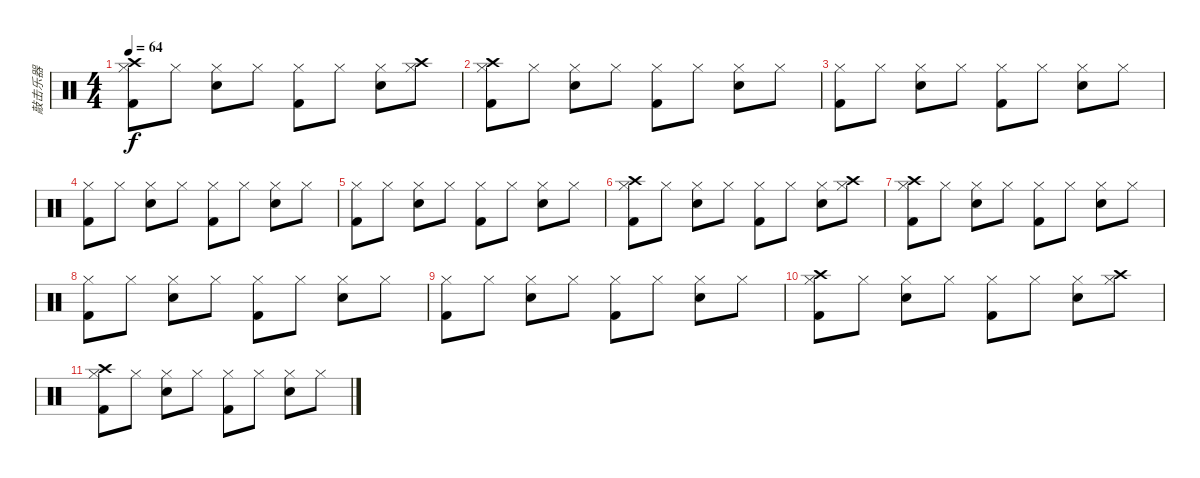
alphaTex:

\track ("敲击乐器" "敲击乐器") {instrument percussion}
\staff {score}
\articulation defaults
\ts (4 4)
\tempo 64
\clef neutral
\ks c
("Kick (hit) 2" "Hi-Hat (closed)" "Crash high (hit)").8{dy f} "Hi-Hat (closed)".8 ("Hi-Hat (closed)" "Electric Snare (hit)").8 "Hi-Hat (closed)".8 ("Kick (hit) 2" "Hi-Hat (closed)").8 "Hi-Hat (closed)".8 ("Electric Snare (hit)" "Hi-Hat (closed)").8 ("Hi-Hat (closed)" "Crash high (hit)").8 |
("Kick (hit) 2" "Hi-Hat (closed)" "Crash high (hit)").8 "Hi-Hat (closed)".8 ("Hi-Hat (closed)" "Electric Snare (hit)").8 "Hi-Hat (closed)".8 ("Kick (hit) 2" "Hi-Hat (closed)").8 "Hi-Hat (closed)".8 ("Hi-Hat (closed)" "Electric Snare (hit)").8 "Hi-Hat (closed)".8 |
("Kick (hit) 2" "Hi-Hat (closed)").8 "Hi-Hat (closed)".8 ("Hi-Hat (closed)" "Electric Snare (hit)").8 "Hi-Hat (closed)".8 ("Kick (hit) 2" "Hi-Hat (closed)").8 "Hi-Hat (closed)".8 ("Electric Snare (hit)" "Hi-Hat (closed)").8 "Hi-Hat (closed)".8 |
("Kick (hit) 2" "Hi-Hat (closed)").8 "Hi-Hat (closed)".8 ("Hi-Hat (closed)" "Electric Snare (hit)").8 "Hi-Hat (closed)".8 ("Kick (hit) 2" "Hi-Hat (closed)").8 "Hi-Hat (closed)".8 ("Electric Snare (hit)" "Hi-Hat (closed)").8 "Hi-Hat (closed)".8 |
("Kick (hit) 2" "Hi-Hat (closed)").8 "Hi-Hat (closed)".8 ("Hi-Hat (closed)" "Electric Snare (hit)").8 "Hi-Hat (closed)".8 ("Kick (hit) 2" "Hi-Hat (closed)").8 "Hi-Hat (closed)".8 ("Electric Snare (hit)" "Hi-Hat (closed)").8 "Hi-Hat (closed)".8 |
("Kick (hit) 2" "Hi-Hat (closed)" "Crash high (hit)").8 "Hi-Hat (closed)".8 ("Hi-Hat (closed)" "Electric Snare (hit)").8 "Hi-Hat (closed)".8 ("Kick (hit) 2" "Hi-Hat (closed)").8 "Hi-Hat (closed)".8 ("Electric Snare (hit)" "Hi-Hat (closed)").8 ("Hi-Hat (closed)" "Crash high (hit)").8 |
("Kick (hit) 2" "Hi-Hat (closed)" "Crash high (hit)").8 "Hi-Hat (closed)".8 ("Hi-Hat (closed)" "Electric Snare (hit)").8 "Hi-Hat (closed)".8 ("Kick (hit) 2" "Hi-Hat (closed)").8 "Hi-Hat (closed)".8 ("Hi-Hat (closed)" "Electric Snare (hit)").8 "Hi-Hat (closed)".8 |
("Kick (hit) 2" "Hi-Hat (closed)").8 "Hi-Hat (closed)".8 ("Hi-Hat (closed)" "Electric Snare (hit)").8 "Hi-Hat (closed)".8 ("Kick (hit) 2" "Hi-Hat (closed)").8 "Hi-Hat (closed)".8 ("Electric Snare (hit)" "Hi-Hat (closed)").8 "Hi-Hat (closed)".8 |
("Kick (hit) 2" "Hi-Hat (closed)").8 "Hi-Hat (closed)".8 ("Hi-Hat (closed)" "Electric Snare (hit)").8 "Hi-Hat (closed)".8 ("Kick (hit) 2" "Hi-Hat (closed)").8 "Hi-Hat (closed)".8 ("Electric Snare (hit)" "Hi-Hat (closed)").8 "Hi-Hat (closed)".8 |
("Kick (hit) 2" "Hi-Hat (closed)" "Crash high (hit)").8 "Hi-Hat (closed)".8 ("Hi-Hat (closed)" "Electric Snare (hit)").8 "Hi-Hat (closed)".8 ("Kick (hit) 2" "Hi-Hat (closed)").8 "Hi-Hat (closed)".8 ("Electric Snare (hit)" "Hi-Hat (closed)").8 ("Hi-Hat (closed)" "Crash high (hit)").8 |
("Kick (hit) 2" "Hi-Hat (closed)" "Crash high (hit)").8 "Hi-Hat (closed)".8 ("Hi-Hat (closed)" "Electric Snare (hit)").8 "Hi-Hat (closed)".8 ("Kick (hit) 2" "Hi-Hat (closed)").8 "Hi-Hat (closed)".8 ("Hi-Hat (closed)" "Electric Snare (hit)").8 "Hi-Hat (closed)".8
